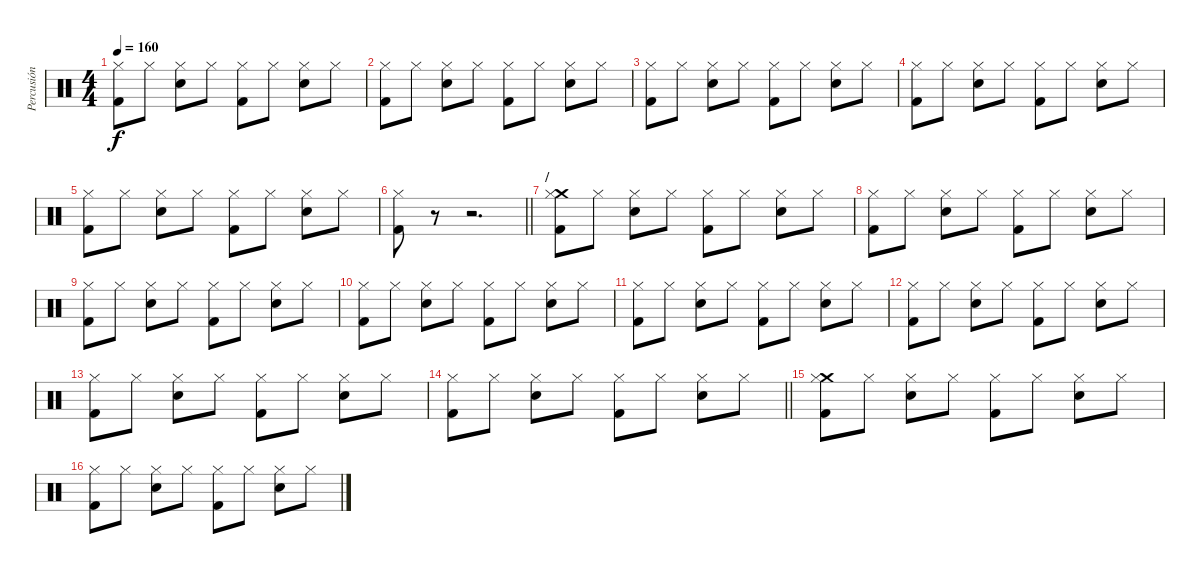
\track ("Percusión" "Percusión") {instrument percussion}
\staff {score}
\articulation defaults
\ts (4 4)
\tempo 160
\clef neutral
\ks c
("Hi-Hat (closed)" "Kick (hit) 2").8{dy f} "Hi-Hat (closed)".8 ("Hi-Hat (closed)" "Snare (hit) 2").8 "Hi-Hat (closed)".8 ("Hi-Hat (closed)" "Kick (hit) 2").8 "Hi-Hat (closed)".8 ("Hi-Hat (closed)" "Snare (hit) 2").8 "Hi-Hat (closed)".8 |
("Hi-Hat (closed)" "Kick (hit) 2").8 "Hi-Hat (closed)".8 ("Hi-Hat (closed)" "Snare (hit) 2").8 "Hi-Hat (closed)".8 ("Hi-Hat (closed)" "Kick (hit) 2").8 "Hi-Hat (closed)".8 ("Hi-Hat (closed)" "Snare (hit) 2").8 "Hi-Hat (closed)".8 |
("Hi-Hat (closed)" "Kick (hit) 2").8 "Hi-Hat (closed)".8 ("Hi-Hat (closed)" "Snare (hit) 2").8 "Hi-Hat (closed)".8 ("Hi-Hat (closed)" "Kick (hit) 2").8 "Hi-Hat (closed)".8 ("Hi-Hat (closed)" "Snare (hit) 2").8 "Hi-Hat (closed)".8 |
("Hi-Hat (closed)" "Kick (hit) 2").8 "Hi-Hat (closed)".8 ("Hi-Hat (closed)" "Snare (hit) 2").8 "Hi-Hat (closed)".8 ("Hi-Hat (closed)" "Kick (hit) 2").8 "Hi-Hat (closed)".8 ("Hi-Hat (closed)" "Snare (hit) 2").8 "Hi-Hat (closed)".8 |
("Hi-Hat (closed)" "Kick (hit) 2").8 "Hi-Hat (closed)".8 ("Hi-Hat (closed)" "Snare (hit) 2").8 "Hi-Hat (closed)".8 ("Hi-Hat (closed)" "Kick (hit) 2").8 "Hi-Hat (closed)".8 ("Hi-Hat (closed)" "Snare (hit) 2").8 "Hi-Hat (closed)".8 |
\barLineRight lightlight
("Hi-Hat (closed)" "Kick (hit) 2").8 r.8 r.2{d} |
\section ("" "/")
("Crash medium (hit)" "Hi-Hat (closed)" "Kick (hit) 2").8 "Hi-Hat (closed)".8 ("Hi-Hat (closed)" "Snare (hit) 2").8 "Hi-Hat (closed)".8 ("Hi-Hat (closed)" "Kick (hit) 2").8 "Hi-Hat (closed)".8 ("Hi-Hat (closed)" "Snare (hit) 2").8 "Hi-Hat (closed)".8 |
("Hi-Hat (closed)" "Kick (hit) 2").8 "Hi-Hat (closed)".8 ("Hi-Hat (closed)" "Snare (hit) 2").8 "Hi-Hat (closed)".8 ("Hi-Hat (closed)" "Kick (hit) 2").8 "Hi-Hat (closed)".8 ("Hi-Hat (closed)" "Snare (hit) 2").8 "Hi-Hat (closed)".8 |
("Hi-Hat (closed)" "Kick (hit) 2").8 "Hi-Hat (closed)".8 ("Hi-Hat (closed)" "Snare (hit) 2").8 "Hi-Hat (closed)".8 ("Hi-Hat (closed)" "Kick (hit) 2").8 "Hi-Hat (closed)".8 ("Hi-Hat (closed)" "Snare (hit) 2").8 "Hi-Hat (closed)".8 |
("Hi-Hat (closed)" "Kick (hit) 2").8 "Hi-Hat (closed)".8 ("Hi-Hat (closed)" "Snare (hit) 2").8 "Hi-Hat (closed)".8 ("Hi-Hat (closed)" "Kick (hit) 2").8 "Hi-Hat (closed)".8 ("Hi-Hat (closed)" "Snare (hit) 2").8 "Hi-Hat (closed)".8 |
("Hi-Hat (closed)" "Kick (hit) 2").8 "Hi-Hat (closed)".8 ("Hi-Hat (closed)" "Snare (hit) 2").8 "Hi-Hat (closed)".8 ("Hi-Hat (closed)" "Kick (hit) 2").8 "Hi-Hat (closed)".8 ("Hi-Hat (closed)" "Snare (hit) 2").8 "Hi-Hat (closed)".8 |
("Hi-Hat (closed)" "Kick (hit) 2").8 "Hi-Hat (closed)".8 ("Hi-Hat (closed)" "Snare (hit) 2").8 "Hi-Hat (closed)".8 ("Hi-Hat (closed)" "Kick (hit) 2").8 "Hi-Hat (closed)".8 ("Hi-Hat (closed)" "Snare (hit) 2").8 "Hi-Hat (closed)".8 |
("Hi-Hat (closed)" "Kick (hit) 2").8 "Hi-Hat (closed)".8 ("Hi-Hat (closed)" "Snare (hit) 2").8 "Hi-Hat (closed)".8 ("Hi-Hat (closed)" "Kick (hit) 2").8 "Hi-Hat (closed)".8 ("Hi-Hat (closed)" "Snare (hit) 2").8 "Hi-Hat (closed)".8 |
\barLineRight lightlight
("Hi-Hat (closed)" "Kick (hit) 2").8 "Hi-Hat (closed)".8 ("Hi-Hat (closed)" "Snare (hit) 2").8 "Hi-Hat (closed)".8 ("Hi-Hat (closed)" "Kick (hit) 2").8 "Hi-Hat (closed)".8 ("Hi-Hat (closed)" "Snare (hit) 2").8 "Hi-Hat (closed)".8 |
("Crash medium (hit)" "Hi-Hat (closed)" "Kick (hit) 2").8 "Hi-Hat (closed)".8 ("Hi-Hat (closed)" "Snare (hit) 2").8 "Hi-Hat (closed)".8 ("Hi-Hat (closed)" "Kick (hit) 2").8 "Hi-Hat (closed)".8 ("Hi-Hat (closed)" "Snare (hit) 2").8 "Hi-Hat (closed)".8 |
("Hi-Hat (closed)" "Kick (hit) 2").8 "Hi-Hat (closed)".8 ("Hi-Hat (closed)" "Snare (hit) 2").8 "Hi-Hat (closed)".8 ("Hi-Hat (closed)" "Kick (hit) 2").8 "Hi-Hat (closed)".8 ("Hi-Hat (closed)" "Snare (hit) 2").8 "Hi-Hat (closed)".8
